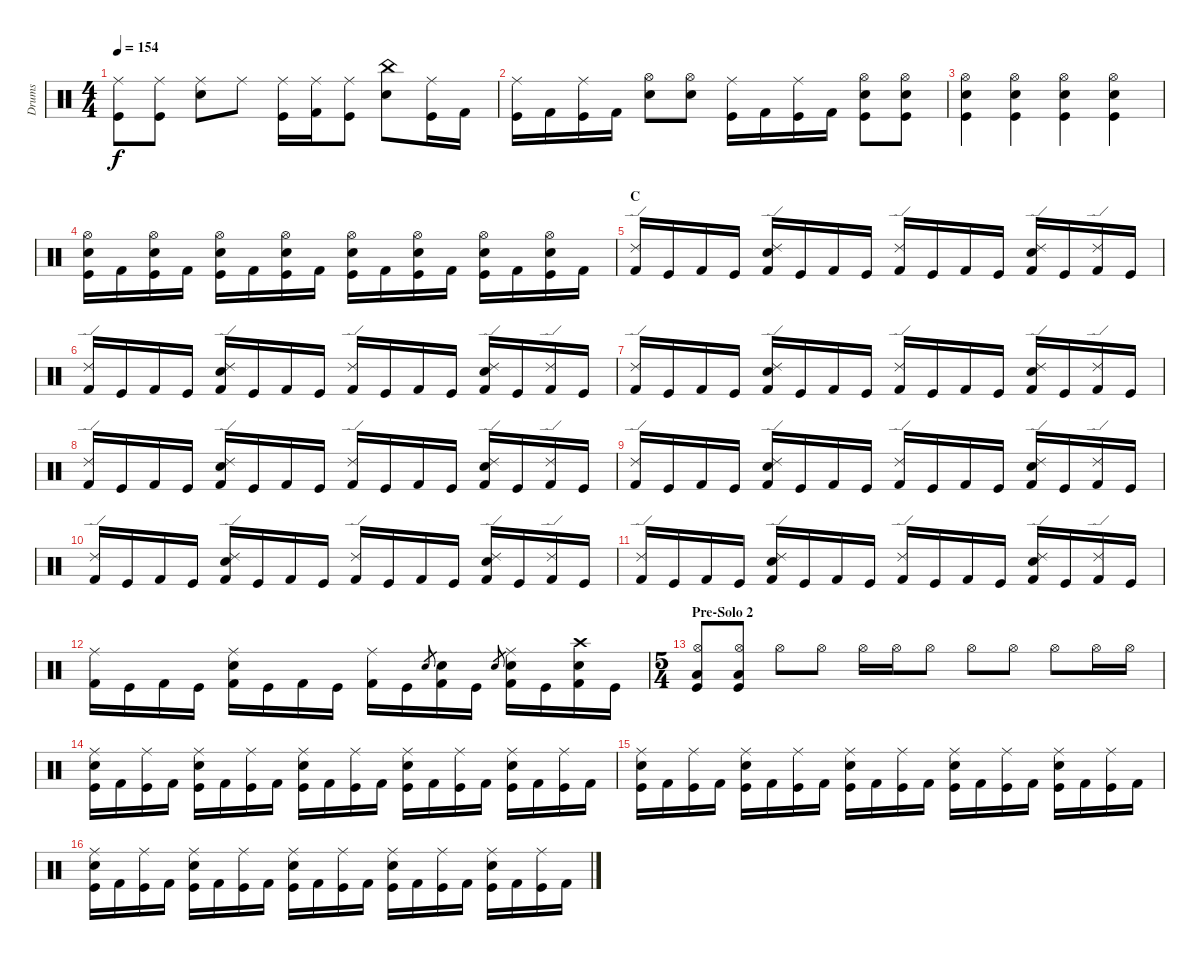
\track ("Drums" "Drums") {instrument percussion}
\staff {score}
\articulation defaults
\ts (4 4)
\tempo 154
\clef neutral
\ks c
("Ride (middle)" "Kick (hit)").8{dy f} ("Ride (middle)" "Kick (hit)").8 ("Ride (middle)" "Electric Snare (hit)").8 "Ride (middle)".8 ("Ride (middle)" "Kick (hit)").16 ("Ride (middle)" "Kick (hit) 2").16 ("Ride (middle)" "Kick (hit)").8 ("China (hit)" "Electric Snare (hit)").8 ("Ride (middle)" "Kick (hit)").16 "Kick (hit) 2".16 |
("Ride (middle)" "Kick (hit)").16 "Kick (hit) 2".16 ("Ride (middle)" "Kick (hit)").16 "Kick (hit) 2".16 ("Hi-Hat (open)" "Electric Snare (hit)").8 ("Hi-Hat (open)" "Electric Snare (hit)").8 ("Ride (middle)" "Kick (hit)").16 "Kick (hit) 2".16 ("Ride (middle)" "Kick (hit)").16 "Kick (hit) 2".16 ("Hi-Hat (open)" "Electric Snare (hit)" "Kick (hit)").8 ("Hi-Hat (open)" "Electric Snare (hit)" "Kick (hit)").8 |
("Hi-Hat (open)" "Electric Snare (hit)" "Kick (hit)").4 ("Hi-Hat (open)" "Electric Snare (hit)" "Kick (hit)").4 ("Hi-Hat (open)" "Electric Snare (hit)" "Kick (hit)").4 ("Hi-Hat (open)" "Electric Snare (hit)" "Kick (hit)").4 |
("Hi-Hat (open)" "Electric Snare (hit)" "Kick (hit)").16 "Kick (hit) 2".16 ("Hi-Hat (open)" "Electric Snare (hit)" "Kick (hit)").16 "Kick (hit) 2".16 ("Hi-Hat (open)" "Electric Snare (hit)" "Kick (hit)").16 "Kick (hit) 2".16 ("Hi-Hat (open)" "Electric Snare (hit)" "Kick (hit)").16 "Kick (hit) 2".16 ("Hi-Hat (open)" "Electric Snare (hit)" "Kick (hit)").16 "Kick (hit) 2".16 ("Hi-Hat (open)" "Electric Snare (hit)" "Kick (hit)").16 "Kick (hit) 2".16 ("Hi-Hat (open)" "Electric Snare (hit)" "Kick (hit)").16 "Kick (hit) 2".16 ("Hi-Hat (open)" "Electric Snare (hit)" "Kick (hit)").16 "Kick (hit) 2".16 |
\section ("" "C")
("Ride (edge) 2" "Kick (hit) 2").16 "Kick (hit)".16 "Kick (hit) 2".16 "Kick (hit)".16 ("Ride (edge) 2" "Electric Snare (hit)" "Kick (hit) 2").16 "Kick (hit)".16 "Kick (hit) 2".16 "Kick (hit)".16 ("Ride (edge) 2" "Kick (hit) 2").16 "Kick (hit)".16 "Kick (hit) 2".16 "Kick (hit)".16 ("Ride (edge) 2" "Electric Snare (hit)" "Kick (hit) 2").16 "Kick (hit)".16 ("Ride (edge) 2" "Kick (hit) 2").16 "Kick (hit)".16 |
("Ride (edge) 2" "Kick (hit) 2").16 "Kick (hit)".16 "Kick (hit) 2".16 "Kick (hit)".16 ("Ride (edge) 2" "Electric Snare (hit)" "Kick (hit) 2").16 "Kick (hit)".16 "Kick (hit) 2".16 "Kick (hit)".16 ("Ride (edge) 2" "Kick (hit) 2").16 "Kick (hit)".16 "Kick (hit) 2".16 "Kick (hit)".16 ("Ride (edge) 2" "Electric Snare (hit)" "Kick (hit) 2").16 "Kick (hit)".16 ("Ride (edge) 2" "Kick (hit) 2").16 "Kick (hit)".16 |
("Ride (edge) 2" "Kick (hit) 2").16 "Kick (hit)".16 "Kick (hit) 2".16 "Kick (hit)".16 ("Ride (edge) 2" "Electric Snare (hit)" "Kick (hit) 2").16 "Kick (hit)".16 "Kick (hit) 2".16 "Kick (hit)".16 ("Ride (edge) 2" "Kick (hit) 2").16 "Kick (hit)".16 "Kick (hit) 2".16 "Kick (hit)".16 ("Ride (edge) 2" "Electric Snare (hit)" "Kick (hit) 2").16 "Kick (hit)".16 ("Ride (edge) 2" "Kick (hit) 2").16 "Kick (hit)".16 |
("Ride (edge) 2" "Kick (hit) 2").16 "Kick (hit)".16 "Kick (hit) 2".16 "Kick (hit)".16 ("Ride (edge) 2" "Electric Snare (hit)" "Kick (hit) 2").16 "Kick (hit)".16 "Kick (hit) 2".16 "Kick (hit)".16 ("Ride (edge) 2" "Kick (hit) 2").16 "Kick (hit)".16 "Kick (hit) 2".16 "Kick (hit)".16 ("Ride (edge) 2" "Electric Snare (hit)" "Kick (hit) 2").16 "Kick (hit)".16 ("Ride (edge) 2" "Kick (hit) 2").16 "Kick (hit)".16 |
("Ride (edge) 2" "Kick (hit) 2").16 "Kick (hit)".16 "Kick (hit) 2".16 "Kick (hit)".16 ("Ride (edge) 2" "Electric Snare (hit)" "Kick (hit) 2").16 "Kick (hit)".16 "Kick (hit) 2".16 "Kick (hit)".16 ("Ride (edge) 2" "Kick (hit) 2").16 "Kick (hit)".16 "Kick (hit) 2".16 "Kick (hit)".16 ("Ride (edge) 2" "Electric Snare (hit)" "Kick (hit) 2").16 "Kick (hit)".16 ("Ride (edge) 2" "Kick (hit) 2").16 "Kick (hit)".16 |
("Ride (edge) 2" "Kick (hit) 2").16 "Kick (hit)".16 "Kick (hit) 2".16 "Kick (hit)".16 ("Ride (edge) 2" "Electric Snare (hit)" "Kick (hit) 2").16 "Kick (hit)".16 "Kick (hit) 2".16 "Kick (hit)".16 ("Ride (edge) 2" "Kick (hit) 2").16 "Kick (hit)".16 "Kick (hit) 2".16 "Kick (hit)".16 ("Ride (edge) 2" "Electric Snare (hit)" "Kick (hit) 2").16 "Kick (hit)".16 ("Ride (edge) 2" "Kick (hit) 2").16 "Kick (hit)".16 |
("Ride (edge) 2" "Kick (hit) 2").16 "Kick (hit)".16 "Kick (hit) 2".16 "Kick (hit)".16 ("Ride (edge) 2" "Electric Snare (hit)" "Kick (hit) 2").16 "Kick (hit)".16 "Kick (hit) 2".16 "Kick (hit)".16 ("Ride (edge) 2" "Kick (hit) 2").16 "Kick (hit)".16 "Kick (hit) 2".16 "Kick (hit)".16 ("Ride (edge) 2" "Electric Snare (hit)" "Kick (hit) 2").16 "Kick (hit)".16 ("Ride (edge) 2" "Kick (hit) 2").16 "Kick (hit)".16 |
("Ride (middle)" "Kick (hit) 2").16 "Kick (hit)".16 "Kick (hit) 2".16 "Kick (hit)".16 ("Ride (middle)" "Electric Snare (hit)" "Kick (hit) 2").16 "Kick (hit)".16 "Kick (hit) 2".16 "Kick (hit)".16 ("Ride (middle)" "Kick (hit) 2").16 "Kick (hit)".16 "Electric Snare (hit)".8{gr} ("Electric Snare (hit)" "Kick (hit) 2").16 "Kick (hit)".16 "Electric Snare (hit)".8{gr} ("Ride (middle)" "Electric Snare (hit)" "Kick (hit) 2").16 "Kick (hit)".16 ("Crash high (hit)" "Electric Snare (hit)" "Kick (hit) 2").16 "Kick (hit)".16 |
\ts (5 4)
\section ("" "Pre-Solo 2")
("Hi-Hat (open)" "Low Floor Tom (hit)" "Kick (hit)").8 ("Hi-Hat (open)" "Low Floor Tom (hit)" "Kick (hit)").8 "Hi-Hat (open)".8 "Hi-Hat (open)".8 "Hi-Hat (open)".16 "Hi-Hat (open)".16 "Hi-Hat (open)".8 "Hi-Hat (open)".8 "Hi-Hat (open)".8 "Hi-Hat (open)".8 "Hi-Hat (open)".16 "Hi-Hat (open)".16 |
("Ride (middle)" "Electric Snare (hit)" "Kick (hit)").16 "Kick (hit) 2".16 ("Ride (middle)" "Kick (hit)").16 "Kick (hit) 2".16 ("Ride (middle)" "Electric Snare (hit)" "Kick (hit)").16 "Kick (hit) 2".16 ("Ride (middle)" "Kick (hit)").16 "Kick (hit) 2".16 ("Ride (middle)" "Electric Snare (hit)" "Kick (hit)").16 "Kick (hit) 2".16 ("Ride (middle)" "Kick (hit)").16 "Kick (hit) 2".16 ("Ride (middle)" "Electric Snare (hit)" "Kick (hit)").16 "Kick (hit) 2".16 ("Ride (middle)" "Kick (hit)").16 "Kick (hit) 2".16 ("Ride (middle)" "Electric Snare (hit)" "Kick (hit)").16 "Kick (hit) 2".16 ("Ride (middle)" "Kick (hit)").16 "Kick (hit) 2".16 |
("Ride (middle)" "Electric Snare (hit)" "Kick (hit)").16 "Kick (hit) 2".16 ("Ride (middle)" "Kick (hit)").16 "Kick (hit) 2".16 ("Ride (middle)" "Electric Snare (hit)" "Kick (hit)").16 "Kick (hit) 2".16 ("Ride (middle)" "Kick (hit)").16 "Kick (hit) 2".16 ("Ride (middle)" "Electric Snare (hit)" "Kick (hit)").16 "Kick (hit) 2".16 ("Ride (middle)" "Kick (hit)").16 "Kick (hit) 2".16 ("Ride (middle)" "Electric Snare (hit)" "Kick (hit)").16 "Kick (hit) 2".16 ("Ride (middle)" "Kick (hit)").16 "Kick (hit) 2".16 ("Ride (middle)" "Electric Snare (hit)" "Kick (hit)").16 "Kick (hit) 2".16 ("Ride (middle)" "Kick (hit)").16 "Kick (hit) 2".16 |
("Ride (middle)" "Electric Snare (hit)" "Kick (hit)").16 "Kick (hit) 2".16 ("Ride (middle)" "Kick (hit)").16 "Kick (hit) 2".16 ("Ride (middle)" "Electric Snare (hit)" "Kick (hit)").16 "Kick (hit) 2".16 ("Ride (middle)" "Kick (hit)").16 "Kick (hit) 2".16 ("Ride (middle)" "Electric Snare (hit)" "Kick (hit)").16 "Kick (hit) 2".16 ("Ride (middle)" "Kick (hit)").16 "Kick (hit) 2".16 ("Ride (middle)" "Electric Snare (hit)" "Kick (hit)").16 "Kick (hit) 2".16 ("Ride (middle)" "Kick (hit)").16 "Kick (hit) 2".16 ("Ride (middle)" "Electric Snare (hit)" "Kick (hit)").16 "Kick (hit) 2".16 ("Ride (middle)" "Kick (hit)").16 "Kick (hit) 2".16
